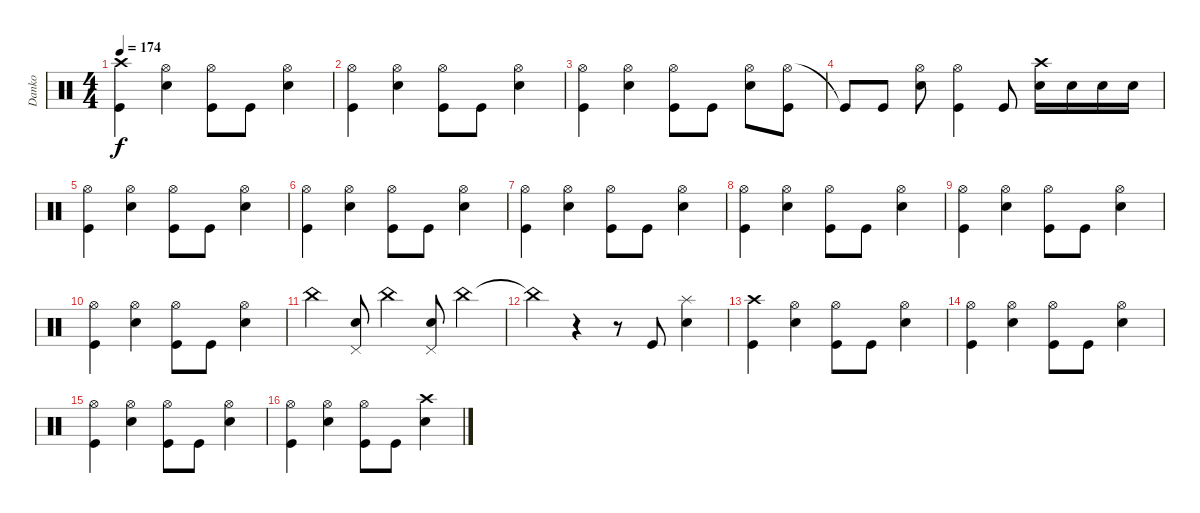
\track ("Danko" "Danko") {instrument percussion}
\staff {score}
\articulation defaults
\ts (4 4)
\tempo 174
\clef neutral
\ks c
("Crash high (hit)" "Kick (hit)").4{dy f} ("Hi-Hat (open)" "Snare (hit) 2").4 ("Hi-Hat (open)" "Kick (hit)").8 "Kick (hit)".8 ("Hi-Hat (open)" "Snare (hit) 2").4 |
("Hi-Hat (open)" "Kick (hit)").4 ("Hi-Hat (open)" "Snare (hit) 2").4 ("Hi-Hat (open)" "Kick (hit)").8 "Kick (hit)".8 ("Hi-Hat (open)" "Snare (hit) 2").4 |
("Hi-Hat (open)" "Kick (hit)").4 ("Hi-Hat (open)" "Snare (hit) 2").4 ("Hi-Hat (open)" "Kick (hit)").8 "Kick (hit)".8 ("Hi-Hat (open)" "Snare (hit) 2").8 ("Hi-Hat (open)" "Kick (hit)").8 |
"Kick (hit)"{t}.8 "Kick (hit)".8 ("Hi-Hat (open)" "Snare (hit) 2").8 ("Hi-Hat (open)" "Kick (hit)").4 "Kick (hit)".8 ("Crash high (hit)" "Snare (hit) 2").16 "Snare (hit) 2".16 "Snare (hit) 2".16 "Snare (hit) 2".16 |
("Hi-Hat (open)" "Kick (hit)").4 ("Hi-Hat (open)" "Snare (hit) 2").4 ("Hi-Hat (open)" "Kick (hit)").8 "Kick (hit)".8 ("Hi-Hat (open)" "Snare (hit) 2").4 |
("Hi-Hat (open)" "Kick (hit)").4 ("Hi-Hat (open)" "Snare (hit) 2").4 ("Hi-Hat (open)" "Kick (hit)").8 "Kick (hit)".8 ("Hi-Hat (open)" "Snare (hit) 2").4 |
("Hi-Hat (open)" "Kick (hit)").4 ("Hi-Hat (open)" "Snare (hit) 2").4 ("Hi-Hat (open)" "Kick (hit)").8 "Kick (hit)".8 ("Hi-Hat (open)" "Snare (hit) 2").4 |
("Hi-Hat (open)" "Kick (hit)").4 ("Hi-Hat (open)" "Snare (hit) 2").4 ("Hi-Hat (open)" "Kick (hit)").8 "Kick (hit)".8 ("Hi-Hat (open)" "Snare (hit) 2").4 |
("Hi-Hat (open)" "Kick (hit)").4 ("Hi-Hat (open)" "Snare (hit) 2").4 ("Hi-Hat (open)" "Kick (hit)").8 "Kick (hit)".8 ("Hi-Hat (open)" "Snare (hit) 2").4 |
("Hi-Hat (open)" "Kick (hit)").4 ("Hi-Hat (open)" "Snare (hit) 2").4 ("Hi-Hat (open)" "Kick (hit)").8 "Kick (hit)".8 ("Hi-Hat (open)" "Snare (hit) 2").4 |
"China (hit)".4 ("Snare (hit) 2" "Pedal Hi-Hat (hit)").8 "China (hit)".4 ("Snare (hit) 2" "Pedal Hi-Hat (hit)").8 "China (hit)".4 |
"China (hit)"{t}.4 r.4 r.8 "Kick (hit)".8 ("Snare (hit) 2" "Splash (hit)").4 |
("Crash high (hit)" "Kick (hit)").4 ("Hi-Hat (open)" "Snare (hit) 2").4 ("Hi-Hat (open)" "Kick (hit)").8 "Kick (hit)".8 ("Hi-Hat (open)" "Snare (hit) 2").4 |
("Hi-Hat (open)" "Kick (hit)").4 ("Hi-Hat (open)" "Snare (hit) 2").4 ("Hi-Hat (open)" "Kick (hit)").8 "Kick (hit)".8 ("Hi-Hat (open)" "Snare (hit) 2").4 |
("Hi-Hat (open)" "Kick (hit)").4 ("Hi-Hat (open)" "Snare (hit) 2").4 ("Hi-Hat (open)" "Kick (hit)").8 "Kick (hit)".8 ("Hi-Hat (open)" "Snare (hit) 2").4 |
("Hi-Hat (open)" "Kick (hit)").4 ("Hi-Hat (open)" "Snare (hit) 2").4 ("Hi-Hat (open)" "Kick (hit)").8 "Kick (hit)".8 ("Crash high (hit)" "Snare (hit) 2").4
